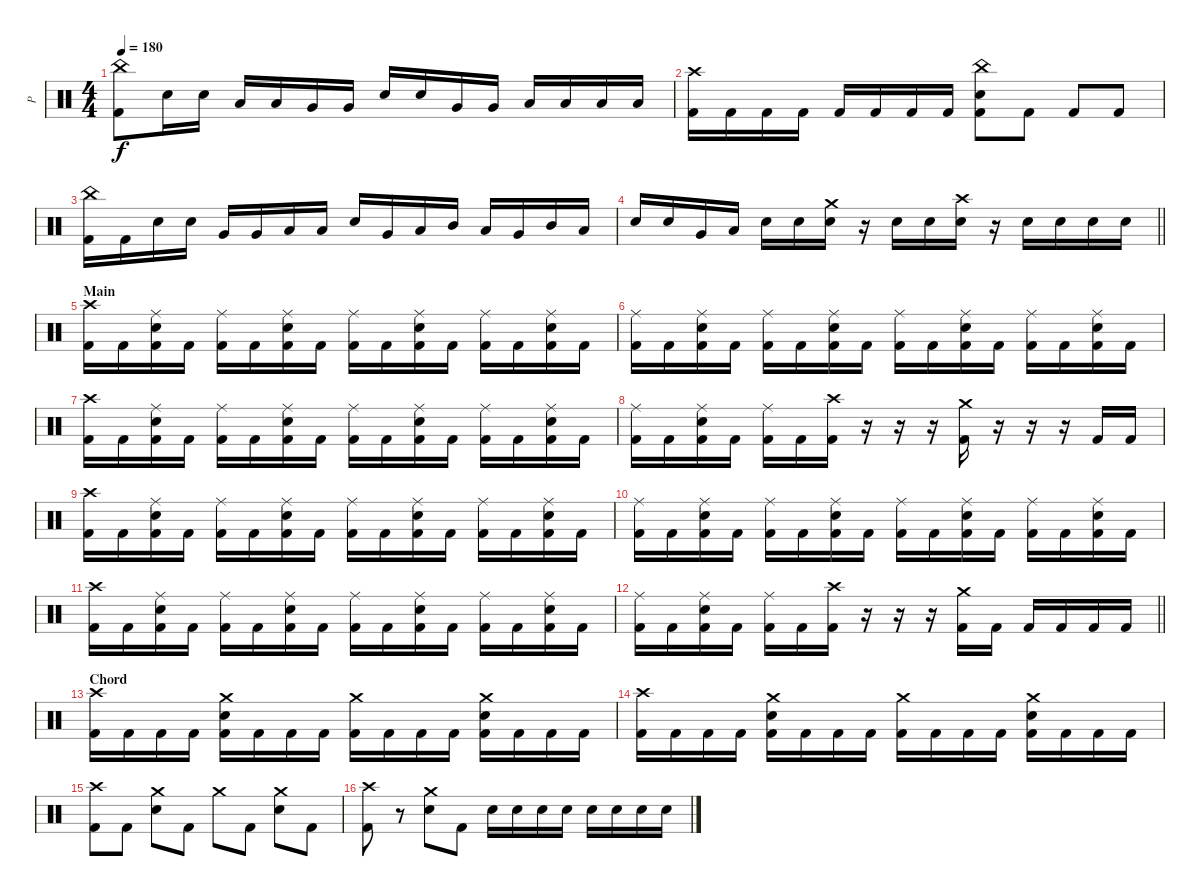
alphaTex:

\track ("P" "P") {instrument percussion}
\staff {score}
\articulation defaults
\ts (4 4)
\tempo 180
\clef neutral
\ks c
("China (hit)" "Kick (hit) 2").8{dy f} "Electric Snare (hit)".16 "Electric Snare (hit)".16 "Low Tom (hit)".16 "Low Tom (hit)".16 "Very Low Tom (hit)".16 "Very Low Tom (hit)".16 "Electric Snare (hit)".16 "Electric Snare (hit)".16 "Very Low Tom (hit)".16 "Very Low Tom (hit)".16 "Low Floor Tom (hit)".16 "Low Floor Tom (hit)".16 "Low Floor Tom (hit)".16 "Low Floor Tom (hit)".16 |
("Crash high (hit)" "Kick (hit) 2").16 "Kick (hit) 2".16 "Kick (hit) 2".16 "Kick (hit) 2".16 "Kick (hit) 2".16 "Kick (hit) 2".16 "Kick (hit) 2".16 "Kick (hit) 2".16 ("China (hit)" "Electric Snare (hit)" "Kick (hit) 2").8 "Kick (hit) 2".8 "Kick (hit) 2".8 "Kick (hit) 2".8 |
("China (hit)" "Kick (hit) 2").16 "Kick (hit) 2".16 "Electric Snare (hit)".16 "Electric Snare (hit)".16 "Very Low Tom (hit)".16 "Very Low Tom (hit)".16 "Low Floor Tom (hit)".16 "Low Floor Tom (hit)".16 "Electric Snare (hit)".16 "Very Low Tom (hit)".16 "Low Floor Tom (hit)".16 "Mid Tom (hit)".16 "Low Tom (hit)".16 "Very Low Tom (hit)".16 "Mid Tom (hit)".16 "Low Tom (hit)".16 |
\barLineRight lightlight "Electric Snare (hit)".16 "Electric Snare (hit)".16 "Very Low Tom (hit)".16 "Low Floor Tom (hit)".16 "Electric Snare (hit)".16 "Electric Snare (hit)".16
("Crash medium (hit)" "Electric Snare (hit)").16 r.16 "Electric Snare (hit)".16 "Electric Snare (hit)".16 ("Crash high (hit)" "Electric Snare (hit)").16 r.16 "Electric Snare (hit)".16 "Electric Snare (hit)".16 "Electric Snare (hit)".16 "Electric Snare (hit)".16 |
\section ("" "Main")
("Crash high (hit)" "Kick (hit) 2").16 "Kick (hit) 2".16 ("Ride (middle)" "Electric Snare (hit)" "Kick (hit) 2").16 "Kick (hit) 2".16 ("Ride (middle)" "Kick (hit) 2").16 "Kick (hit) 2".16 ("Ride (middle)" "Electric Snare (hit)" "Kick (hit) 2").16 "Kick (hit) 2".16 ("Ride (middle)" "Kick (hit) 2").16 "Kick (hit) 2".16 ("Ride (middle)" "Electric Snare (hit)" "Kick (hit) 2").16 "Kick (hit) 2".16 ("Ride (middle)" "Kick (hit) 2").16 "Kick (hit) 2".16 ("Ride (middle)" "Electric Snare (hit)" "Kick (hit) 2").16 "Kick (hit) 2".16 |
("Ride (middle)" "Kick (hit) 2").16 "Kick (hit) 2".16 ("Ride (middle)" "Electric Snare (hit)" "Kick (hit) 2").16 "Kick (hit) 2".16 ("Ride (middle)" "Kick (hit) 2").16 "Kick (hit) 2".16 ("Ride (middle)" "Electric Snare (hit)" "Kick (hit) 2").16 "Kick (hit) 2".16 ("Ride (middle)" "Kick (hit) 2").16 "Kick (hit) 2".16 ("Ride (middle)" "Electric Snare (hit)" "Kick (hit) 2").16 "Kick (hit) 2".16 ("Ride (middle)" "Kick (hit) 2").16 "Kick (hit) 2".16 ("Ride (middle)" "Electric Snare (hit)" "Kick (hit) 2").16 "Kick (hit) 2".16 |
("Crash high (hit)" "Kick (hit) 2").16 "Kick (hit) 2".16 ("Ride (middle)" "Electric Snare (hit)" "Kick (hit) 2").16 "Kick (hit) 2".16 ("Ride (middle)" "Kick (hit) 2").16 "Kick (hit) 2".16 ("Ride (middle)" "Electric Snare (hit)" "Kick (hit) 2").16 "Kick (hit) 2".16 ("Ride (middle)" "Kick (hit) 2").16 "Kick (hit) 2".16 ("Ride (middle)" "Electric Snare (hit)" "Kick (hit) 2").16 "Kick (hit) 2".16 ("Ride (middle)" "Kick (hit) 2").16 "Kick (hit) 2".16 ("Ride (middle)" "Electric Snare (hit)" "Kick (hit) 2").16 "Kick (hit) 2".16 |
("Ride (middle)" "Kick (hit) 2").16 "Kick (hit) 2".16 ("Ride (middle)" "Electric Snare (hit)" "Kick (hit) 2").16 "Kick (hit) 2".16 ("Ride (middle)" "Kick (hit) 2").16 "Kick (hit) 2".16 ("Crash high (hit)" "Kick (hit) 2").16 r.16 r.16 r.16 ("Crash medium (hit)" "Kick (hit) 2").16 r.16 r.16 r.16 "Kick (hit) 2".16 "Kick (hit) 2".16 |
("Crash high (hit)" "Kick (hit) 2").16 "Kick (hit) 2".16 ("Ride (middle)" "Electric Snare (hit)" "Kick (hit) 2").16 "Kick (hit) 2".16 ("Ride (middle)" "Kick (hit) 2").16 "Kick (hit) 2".16 ("Ride (middle)" "Electric Snare (hit)" "Kick (hit) 2").16 "Kick (hit) 2".16 ("Ride (middle)" "Kick (hit) 2").16 "Kick (hit) 2".16 ("Ride (middle)" "Electric Snare (hit)" "Kick (hit) 2").16 "Kick (hit) 2".16 ("Ride (middle)" "Kick (hit) 2").16 "Kick (hit) 2".16 ("Ride (middle)" "Electric Snare (hit)" "Kick (hit) 2").16 "Kick (hit) 2".16 |
("Ride (middle)" "Kick (hit) 2").16 "Kick (hit) 2".16 ("Ride (middle)" "Electric Snare (hit)" "Kick (hit) 2").16 "Kick (hit) 2".16 ("Ride (middle)" "Kick (hit) 2").16 "Kick (hit) 2".16 ("Ride (middle)" "Electric Snare (hit)" "Kick (hit) 2").16 "Kick (hit) 2".16 ("Ride (middle)" "Kick (hit) 2").16 "Kick (hit) 2".16 ("Ride (middle)" "Electric Snare (hit)" "Kick (hit) 2").16 "Kick (hit) 2".16 ("Ride (middle)" "Kick (hit) 2").16 "Kick (hit) 2".16 ("Ride (middle)" "Electric Snare (hit)" "Kick (hit) 2").16 "Kick (hit) 2".16 |
("Crash high (hit)" "Kick (hit) 2").16 "Kick (hit) 2".16 ("Ride (middle)" "Electric Snare (hit)" "Kick (hit) 2").16 "Kick (hit) 2".16 ("Ride (middle)" "Kick (hit) 2").16 "Kick (hit) 2".16 ("Ride (middle)" "Electric Snare (hit)" "Kick (hit) 2").16 "Kick (hit) 2".16 ("Ride (middle)" "Kick (hit) 2").16 "Kick (hit) 2".16 ("Ride (middle)" "Electric Snare (hit)" "Kick (hit) 2").16 "Kick (hit) 2".16 ("Ride (middle)" "Kick (hit) 2").16 "Kick (hit) 2".16 ("Ride (middle)" "Electric Snare (hit)" "Kick (hit) 2").16 "Kick (hit) 2".16 |
\barLineRight lightlight
("Ride (middle)" "Kick (hit) 2").16 "Kick (hit) 2".16 ("Ride (middle)" "Electric Snare (hit)" "Kick (hit) 2").16 "Kick (hit) 2".16 ("Ride (middle)" "Kick (hit) 2").16 "Kick (hit) 2".16 ("Crash high (hit)" "Kick (hit) 2").16 r.16 r.16 r.16 ("Crash medium (hit)" "Kick (hit) 2").16 "Kick (hit) 2".16 "Kick (hit) 2".16 "Kick (hit) 2".16 "Kick (hit) 2".16 "Kick (hit) 2".16 |
\section ("" "Chord")
("Crash high (hit)" "Kick (hit) 2").16 "Kick (hit) 2".16 "Kick (hit) 2".16 "Kick (hit) 2".16 ("Crash medium (hit)" "Electric Snare (hit)" "Kick (hit) 2").16 "Kick (hit) 2".16 "Kick (hit) 2".16 "Kick (hit) 2".16 ("Crash medium (hit)" "Kick (hit) 2").16 "Kick (hit) 2".16 "Kick (hit) 2".16 "Kick (hit) 2".16 ("Crash medium (hit)" "Electric Snare (hit)" "Kick (hit) 2").16 "Kick (hit) 2".16 "Kick (hit) 2".16 "Kick (hit) 2".16 |
("Crash high (hit)" "Kick (hit) 2").16 "Kick (hit) 2".16 "Kick (hit) 2".16 "Kick (hit) 2".16 ("Crash medium (hit)" "Electric Snare (hit)" "Kick (hit) 2").16 "Kick (hit) 2".16 "Kick (hit) 2".16 "Kick (hit) 2".16 ("Crash medium (hit)" "Kick (hit) 2").16 "Kick (hit) 2".16 "Kick (hit) 2".16 "Kick (hit) 2".16 ("Crash medium (hit)" "Electric Snare (hit)" "Kick (hit) 2").16 "Kick (hit) 2".16 "Kick (hit) 2".16 "Kick (hit) 2".16 |
("Crash high (hit)" "Kick (hit) 2").8 "Kick (hit) 2".8 ("Crash medium (hit)" "Electric Snare (hit)").8 "Kick (hit) 2".8 "Crash medium (hit)".8 "Kick (hit) 2".8 ("Crash medium (hit)" "Electric Snare (hit)").8 "Kick (hit) 2".8 |
("Crash high (hit)" "Kick (hit) 2").8 r.8 ("Crash medium (hit)" "Electric Snare (hit)").8 "Kick (hit) 2".8 "Electric Snare (hit)".16 "Electric Snare (hit)".16 "Electric Snare (hit)".16 "Electric Snare (hit)".16 "Electric Snare (hit)".16 "Electric Snare (hit)".16 "Electric Snare (hit)".16 "Electric Snare (hit)".16
